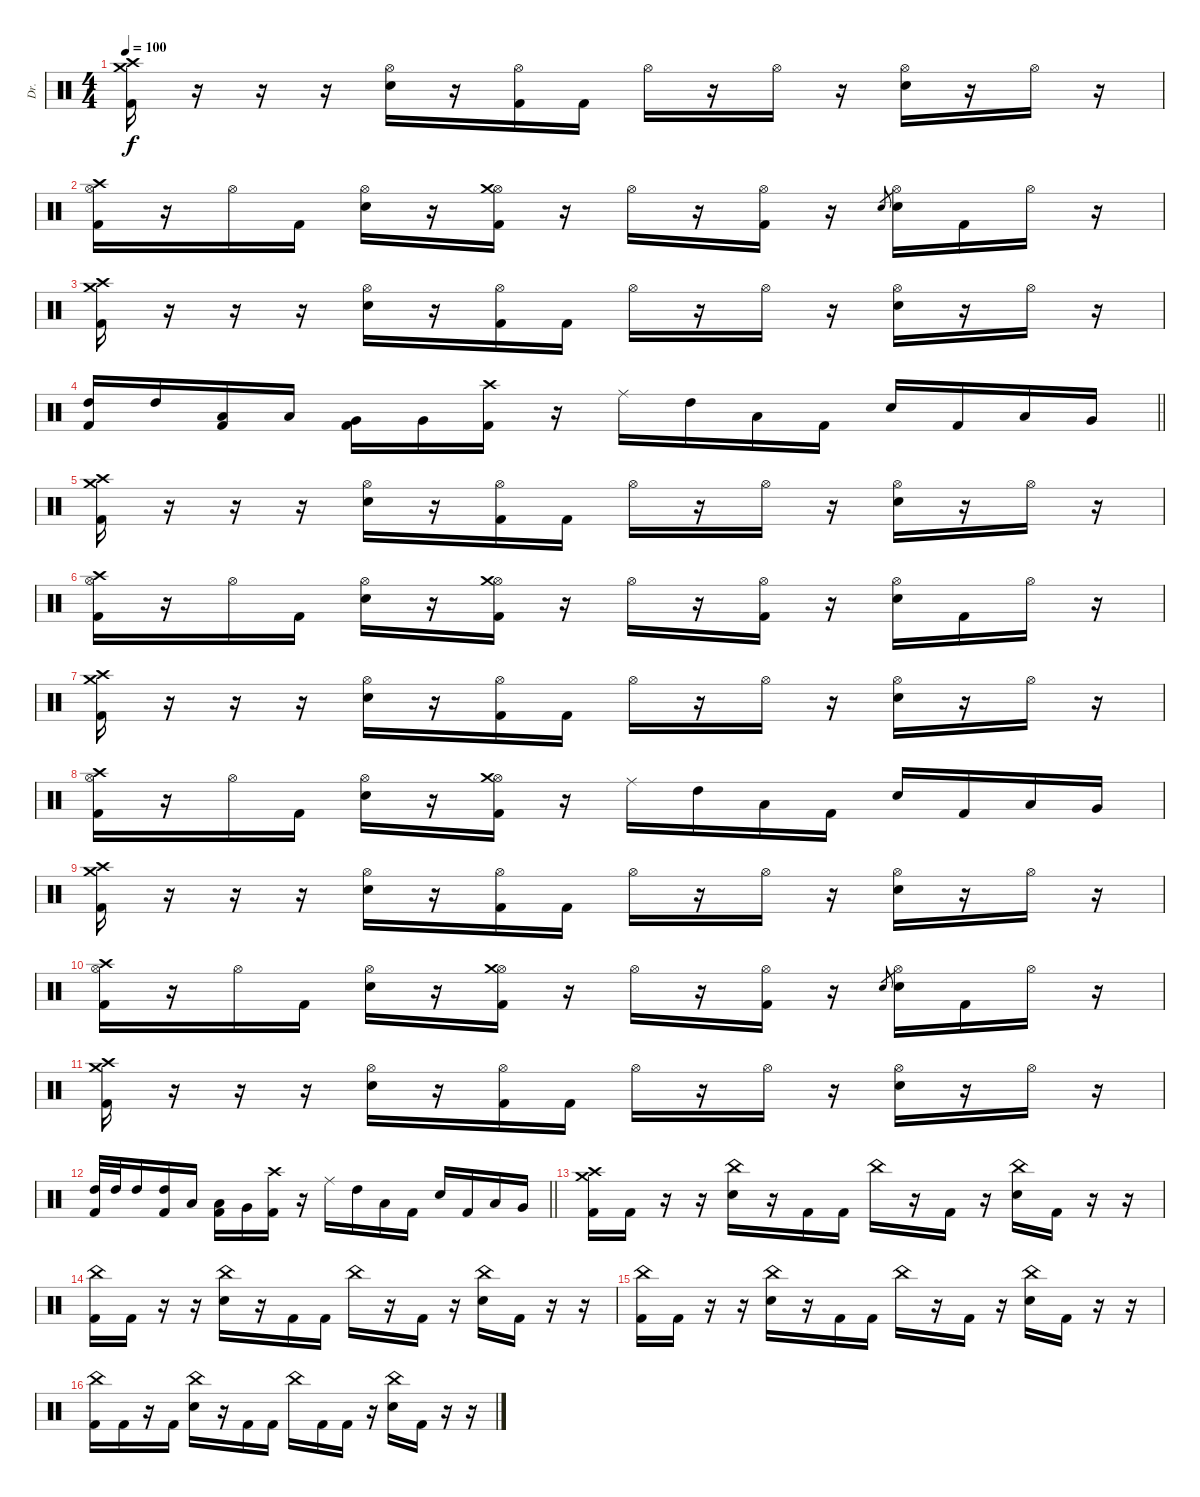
\track ("Dr." "Dr.") {instrument percussion}
\staff {score}
\articulation defaults
\ts (4 4)
\tempo 100
\clef neutral
\ks c
("Crash high (hit)" "Crash medium (hit)" "Kick (hit) 2").16{dy f} r.16 r.16 r.16 ("Hi-Hat (open)" "Electric Snare (hit)").16 r.16 ("Hi-Hat (open)" "Kick (hit) 2").16 "Kick (hit) 2".16 "Hi-Hat (open)".16 r.16 "Hi-Hat (open)".16 r.16 ("Hi-Hat (open)" "Electric Snare (hit)").16 r.16 "Hi-Hat (open)".16 r.16 |
("Hi-Hat (open)" "Crash high (hit)" "Kick (hit) 2").16 r.16 "Hi-Hat (open)".16 "Kick (hit) 2".16 ("Hi-Hat (open)" "Electric Snare (hit)").16 r.16 ("Hi-Hat (open)" "Crash medium (hit)" "Kick (hit) 2").16 r.16 "Hi-Hat (open)".16 r.16 ("Hi-Hat (open)" "Kick (hit) 2").16 r.16 "Electric Snare (hit)".8{gr} ("Hi-Hat (open)" "Electric Snare (hit)").16 "Kick (hit) 2".16 "Hi-Hat (open)".16 r.16 |
("Crash high (hit)" "Crash medium (hit)" "Kick (hit) 2").16 r.16 r.16 r.16 ("Hi-Hat (open)" "Electric Snare (hit)").16 r.16 ("Hi-Hat (open)" "Kick (hit) 2").16 "Kick (hit) 2".16 "Hi-Hat (open)".16 r.16 "Hi-Hat (open)".16 r.16 ("Hi-Hat (open)" "Electric Snare (hit)").16 r.16 "Hi-Hat (open)".16 r.16 |
\barLineRight lightlight
("High Tom (hit)" "Kick (hit) 2").16 "High Tom (hit)".16 ("Low Tom (hit)" "Kick (hit) 2").16 "Low Tom (hit)".16 ("Very Low Tom (hit)" "Kick (hit) 2").16 "Very Low Tom (hit)".16 ("Crash high (hit)" "Kick (hit) 2").16 r.16 "Ride (middle)".16 "High Tom (hit)".16 "Low Tom (hit)".16 "Kick (hit) 2".16 "Electric Snare (hit)".16 "Kick (hit) 2".16 "Low Tom (hit)".16 "Very Low Tom (hit)".16 |
("Crash high (hit)" "Crash medium (hit)" "Kick (hit) 2").16 r.16 r.16 r.16 ("Hi-Hat (open)" "Electric Snare (hit)").16 r.16 ("Hi-Hat (open)" "Kick (hit) 2").16 "Kick (hit) 2".16 "Hi-Hat (open)".16 r.16 "Hi-Hat (open)".16 r.16 ("Hi-Hat (open)" "Electric Snare (hit)").16 r.16 "Hi-Hat (open)".16 r.16 |
("Hi-Hat (open)" "Crash high (hit)" "Kick (hit) 2").16 r.16 "Hi-Hat (open)".16 "Kick (hit) 2".16 ("Hi-Hat (open)" "Electric Snare (hit)").16 r.16 ("Hi-Hat (open)" "Crash medium (hit)" "Kick (hit) 2").16 r.16 "Hi-Hat (open)".16 r.16 ("Hi-Hat (open)" "Kick (hit) 2").16 r.16 ("Hi-Hat (open)" "Electric Snare (hit)").16 "Kick (hit) 2".16 "Hi-Hat (open)".16 r.16 |
("Crash high (hit)" "Crash medium (hit)" "Kick (hit) 2").16 r.16 r.16 r.16 ("Hi-Hat (open)" "Electric Snare (hit)").16 r.16 ("Hi-Hat (open)" "Kick (hit) 2").16 "Kick (hit) 2".16 "Hi-Hat (open)".16 r.16 "Hi-Hat (open)".16 r.16 ("Hi-Hat (open)" "Electric Snare (hit)").16 r.16 "Hi-Hat (open)".16 r.16 |
("Hi-Hat (open)" "Crash high (hit)" "Kick (hit) 2").16 r.16 "Hi-Hat (open)".16 "Kick (hit) 2".16 ("Hi-Hat (open)" "Electric Snare (hit)").16 r.16 ("Hi-Hat (open)" "Crash medium (hit)" "Kick (hit) 2").16 r.16 "Ride (middle)".16 "High Tom (hit)".16 "Low Tom (hit)".16 "Kick (hit) 2".16 "Electric Snare (hit)".16 "Kick (hit) 2".16 "Low Tom (hit)".16 "Very Low Tom (hit)".16 |
("Crash high (hit)" "Crash medium (hit)" "Kick (hit) 2").16 r.16 r.16 r.16 ("Hi-Hat (open)" "Electric Snare (hit)").16 r.16 ("Hi-Hat (open)" "Kick (hit) 2").16 "Kick (hit) 2".16 "Hi-Hat (open)".16 r.16 "Hi-Hat (open)".16 r.16 ("Hi-Hat (open)" "Electric Snare (hit)").16 r.16 "Hi-Hat (open)".16 r.16 |
("Hi-Hat (open)" "Crash high (hit)" "Kick (hit) 2").16 r.16 "Hi-Hat (open)".16 "Kick (hit) 2".16 ("Hi-Hat (open)" "Electric Snare (hit)").16 r.16 ("Hi-Hat (open)" "Crash medium (hit)" "Kick (hit) 2").16 r.16 "Hi-Hat (open)".16 r.16 ("Hi-Hat (open)" "Kick (hit) 2").16 r.16 "Electric Snare (hit)".8{gr} ("Hi-Hat (open)" "Electric Snare (hit)").16 "Kick (hit) 2".16 "Hi-Hat (open)".16 r.16 |
("Crash high (hit)" "Crash medium (hit)" "Kick (hit) 2").16 r.16 r.16 r.16 ("Hi-Hat (open)" "Electric Snare (hit)").16 r.16 ("Hi-Hat (open)" "Kick (hit) 2").16 "Kick (hit) 2".16 "Hi-Hat (open)".16 r.16 "Hi-Hat (open)".16 r.16 ("Hi-Hat (open)" "Electric Snare (hit)").16 r.16 "Hi-Hat (open)".16 r.16 |
\barLineRight lightlight
("High Tom (hit)" "Kick (hit) 2").32 "High Tom (hit)".32 "High Tom (hit)".16 ("High Tom (hit)" "Kick (hit) 2").16 "Low Tom (hit)".16 ("Low Tom (hit)" "Kick (hit) 2").16 "Very Low Tom (hit)".16 ("Crash high (hit)" "Kick (hit) 2").16 r.16 "Ride (middle)".16 "High Tom (hit)".16 "Low Tom (hit)".16 "Kick (hit) 2".16 "Electric Snare (hit)".16 "Kick (hit) 2".16 "Low Tom (hit)".16 "Very Low Tom (hit)".16 |
("Crash high (hit)" "Crash medium (hit)" "Kick (hit) 2").16 "Kick (hit) 2".16 r.16 r.16 ("China (hit)" "Electric Snare (hit)").16 r.16 "Kick (hit) 2".16 "Kick (hit) 2".16 "China (hit)".16 r.16 "Kick (hit) 2".16 r.16 ("China (hit)" "Electric Snare (hit)").16 "Kick (hit) 2".16 r.16 r.16 |
("China (hit)" "Kick (hit) 2").16 "Kick (hit) 2".16 r.16 r.16 ("China (hit)" "Electric Snare (hit)").16 r.16 "Kick (hit) 2".16 "Kick (hit) 2".16 "China (hit)".16 r.16 "Kick (hit) 2".16 r.16 ("China (hit)" "Electric Snare (hit)").16 "Kick (hit) 2".16 r.16 r.16 |
("China (hit)" "Kick (hit) 2").16 "Kick (hit) 2".16 r.16 r.16 ("China (hit)" "Electric Snare (hit)").16 r.16 "Kick (hit) 2".16 "Kick (hit) 2".16 "China (hit)".16 r.16 "Kick (hit) 2".16 r.16 ("China (hit)" "Electric Snare (hit)").16 "Kick (hit) 2".16 r.16 r.16 |
("China (hit)" "Kick (hit) 2").16 "Kick (hit) 2".16 r.16 "Kick (hit) 2".16 ("China (hit)" "Electric Snare (hit)").16 r.16 "Kick (hit) 2".16 "Kick (hit) 2".16 "China (hit)".16 "Kick (hit) 2".16 "Kick (hit) 2".16 r.16 ("China (hit)" "Electric Snare (hit)").16 "Kick (hit) 2".16 r.16 r.16
